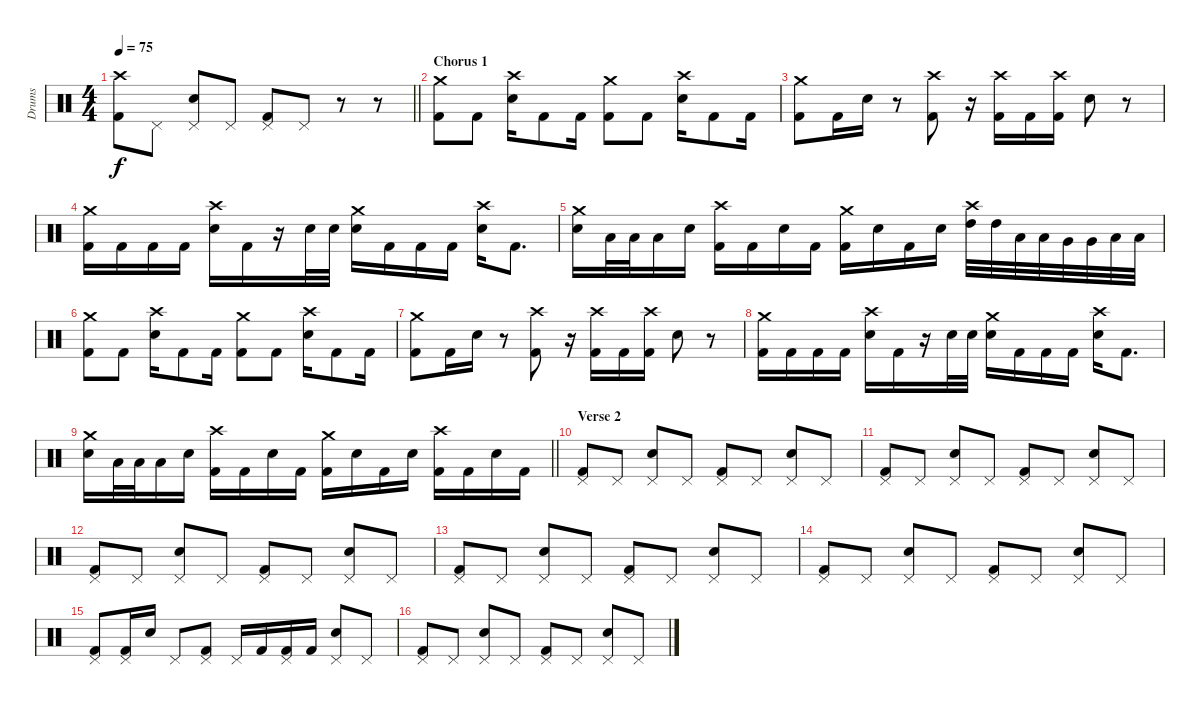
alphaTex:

\track ("Drums" "Drums") {instrument percussion}
\staff {score}
\articulation defaults
\ts (4 4)
\tempo 75
\clef neutral
\barLineRight lightlight
\ks c
("Crash high (hit)" "Kick (hit) 2").8{dy f} "Pedal Hi-Hat (hit)".8 ("Pedal Hi-Hat (hit)" "Snare (hit) 2").8 "Pedal Hi-Hat (hit)".8 ("Pedal Hi-Hat (hit)" "Kick (hit) 2").8 "Pedal Hi-Hat (hit)".8 r.8 r.8 |
\section ("" "Chorus 1")
("Crash medium (hit)" "Kick (hit) 2").8 "Kick (hit) 2".8 ("Crash high (hit)" "Snare (hit) 2").16 "Kick (hit) 2".8 "Kick (hit) 2".16 ("Crash medium (hit)" "Kick (hit) 2").8 "Kick (hit) 2".8 ("Crash high (hit)" "Snare (hit) 2").16 "Kick (hit) 2".8 "Kick (hit) 2".16 |
("Crash medium (hit)" "Kick (hit) 2").8 "Kick (hit) 2".16 "Snare (hit) 2".16 r.8 ("Crash high (hit)" "Kick (hit) 2").8 r.16 ("Crash high (hit)" "Kick (hit) 2").16 "Kick (hit) 2".16 ("Crash high (hit)" "Kick (hit) 2").16 "Snare (hit) 2".8 r.8 |
("Crash medium (hit)" "Kick (hit) 2").16 "Kick (hit) 2".16 "Kick (hit) 2".16 "Kick (hit) 2".16 ("Crash high (hit)" "Snare (hit) 2").16 "Kick (hit) 2".16 r.16 "Snare (hit) 2".32 "Snare (hit) 2".32 ("Crash medium (hit)" "Snare (hit) 2").16 "Kick (hit) 2".16 "Kick (hit) 2".16 "Kick (hit) 2".16 ("Crash high (hit)" "Snare (hit) 2").16 "Kick (hit) 2".8{d} |
("Crash medium (hit)" "Snare (hit) 2").16 "Low Tom (hit)".32 "Low Tom (hit)".32 "Low Tom (hit)".16 "Snare (hit) 2".16 ("Crash high (hit)" "Kick (hit) 2").16 "Kick (hit) 2".16 "Snare (hit) 2".16 "Kick (hit) 2".16 ("Crash medium (hit)" "Kick (hit) 2").16 "Snare (hit) 2".16 "Kick (hit) 2".16 "Snare (hit) 2".16 ("Crash high (hit)" "High Tom (hit)").32 "High Tom (hit)".32 "Low Tom (hit)".32 "Low Tom (hit)".32 "Very Low Tom (hit)".32 "Very Low Tom (hit)".32 "Low Floor Tom (hit)".32 "Low Floor Tom (hit)".32 |
("Crash medium (hit)" "Kick (hit) 2").8 "Kick (hit) 2".8 ("Crash high (hit)" "Snare (hit) 2").16 "Kick (hit) 2".8 "Kick (hit) 2".16 ("Crash medium (hit)" "Kick (hit) 2").8 "Kick (hit) 2".8 ("Crash high (hit)" "Snare (hit) 2").16 "Kick (hit) 2".8 "Kick (hit) 2".16 |
("Crash medium (hit)" "Kick (hit) 2").8 "Kick (hit) 2".16 "Snare (hit) 2".16 r.8 ("Crash high (hit)" "Kick (hit) 2").8 r.16 ("Crash high (hit)" "Kick (hit) 2").16 "Kick (hit) 2".16 ("Crash high (hit)" "Kick (hit) 2").16 "Snare (hit) 2".8 r.8 |
("Crash medium (hit)" "Kick (hit) 2").16 "Kick (hit) 2".16 "Kick (hit) 2".16 "Kick (hit) 2".16 ("Crash high (hit)" "Snare (hit) 2").16 "Kick (hit) 2".16 r.16 "Snare (hit) 2".32 "Snare (hit) 2".32 ("Crash medium (hit)" "Snare (hit) 2").16 "Kick (hit) 2".16 "Kick (hit) 2".16 "Kick (hit) 2".16 ("Crash high (hit)" "Snare (hit) 2").16 "Kick (hit) 2".8{d} |
\barLineRight lightlight
("Crash medium (hit)" "Snare (hit) 2").16 "Low Tom (hit)".32 "Low Tom (hit)".32 "Low Tom (hit)".16 "Snare (hit) 2".16 ("Crash high (hit)" "Kick (hit) 2").16 "Kick (hit) 2".16 "Snare (hit) 2".16 "Kick (hit) 2".16 ("Crash medium (hit)" "Kick (hit) 2").16 "Snare (hit) 2".16 "Kick (hit) 2".16 "Snare (hit) 2".16 ("Crash high (hit)" "Kick (hit) 2").16 "Kick (hit) 2".16 "Snare (hit) 2".16 "Kick (hit) 2".16 |
\section ("" "Verse 2")
("Pedal Hi-Hat (hit)" "Kick (hit) 2").8 "Pedal Hi-Hat (hit)".8 ("Pedal Hi-Hat (hit)" "Snare (hit) 2").8 "Pedal Hi-Hat (hit)".8 ("Pedal Hi-Hat (hit)" "Kick (hit) 2").8 "Pedal Hi-Hat (hit)".8 ("Pedal Hi-Hat (hit)" "Snare (hit) 2").8 "Pedal Hi-Hat (hit)".8 |
("Pedal Hi-Hat (hit)" "Kick (hit) 2").8 "Pedal Hi-Hat (hit)".8 ("Pedal Hi-Hat (hit)" "Snare (hit) 2").8 "Pedal Hi-Hat (hit)".8 ("Pedal Hi-Hat (hit)" "Kick (hit) 2").8 "Pedal Hi-Hat (hit)".8 ("Pedal Hi-Hat (hit)" "Snare (hit) 2").8 "Pedal Hi-Hat (hit)".8 |
("Pedal Hi-Hat (hit)" "Kick (hit) 2").8 "Pedal Hi-Hat (hit)".8 ("Pedal Hi-Hat (hit)" "Snare (hit) 2").8 "Pedal Hi-Hat (hit)".8 ("Pedal Hi-Hat (hit)" "Kick (hit) 2").8 "Pedal Hi-Hat (hit)".8 ("Pedal Hi-Hat (hit)" "Snare (hit) 2").8 "Pedal Hi-Hat (hit)".8 |
("Pedal Hi-Hat (hit)" "Kick (hit) 2").8 "Pedal Hi-Hat (hit)".8 ("Pedal Hi-Hat (hit)" "Snare (hit) 2").8 "Pedal Hi-Hat (hit)".8 ("Pedal Hi-Hat (hit)" "Kick (hit) 2").8 "Pedal Hi-Hat (hit)".8 ("Pedal Hi-Hat (hit)" "Snare (hit) 2").8 "Pedal Hi-Hat (hit)".8 |
("Pedal Hi-Hat (hit)" "Kick (hit) 2").8 "Pedal Hi-Hat (hit)".8 ("Pedal Hi-Hat (hit)" "Snare (hit) 2").8 "Pedal Hi-Hat (hit)".8 ("Pedal Hi-Hat (hit)" "Kick (hit) 2").8 "Pedal Hi-Hat (hit)".8 ("Pedal Hi-Hat (hit)" "Snare (hit) 2").8 "Pedal Hi-Hat (hit)".8 |
("Pedal Hi-Hat (hit)" "Kick (hit) 2").8 ("Pedal Hi-Hat (hit)" "Kick (hit) 2").16 "Snare (hit) 2".16 "Pedal Hi-Hat (hit)".8 ("Pedal Hi-Hat (hit)" "Kick (hit) 2").8 "Pedal Hi-Hat (hit)".16 "Kick (hit) 2".16 ("Pedal Hi-Hat (hit)" "Kick (hit) 2").16 "Kick (hit) 2".16 ("Pedal Hi-Hat (hit)" "Snare (hit) 2").8 "Pedal Hi-Hat (hit)".8 |
("Pedal Hi-Hat (hit)" "Kick (hit) 2").8 "Pedal Hi-Hat (hit)".8 ("Pedal Hi-Hat (hit)" "Snare (hit) 2").8 "Pedal Hi-Hat (hit)".8 ("Pedal Hi-Hat (hit)" "Kick (hit) 2").8 "Pedal Hi-Hat (hit)".8 ("Pedal Hi-Hat (hit)" "Snare (hit) 2").8 "Pedal Hi-Hat (hit)".8
